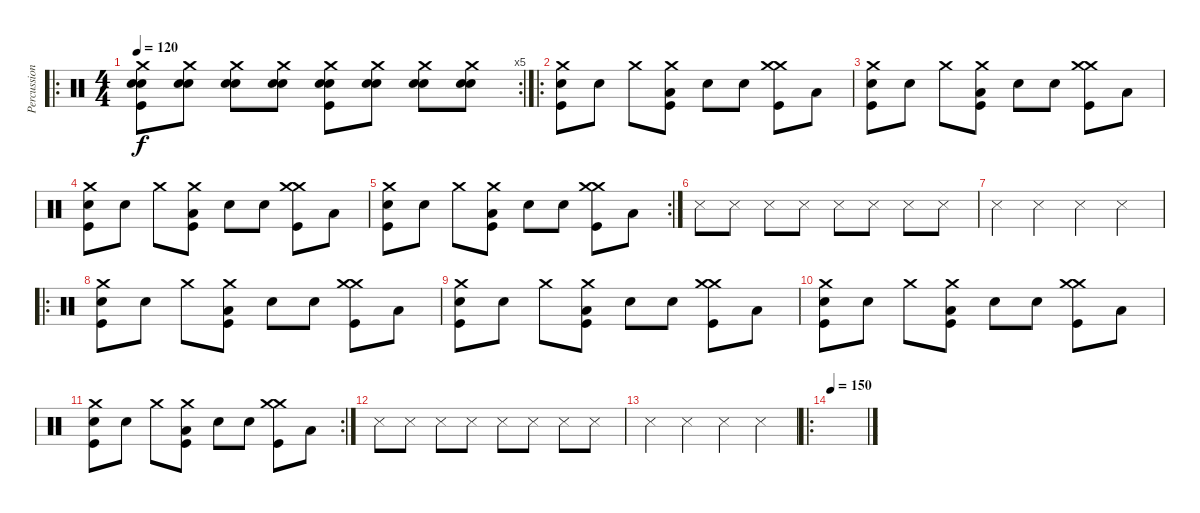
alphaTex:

\track ("Percussion" "Percussion") {instrument percussion}
\staff {score}
\articulation defaults
\ro
\rc 5
\ts (4 4)
\tempo 120
\tempo 170
\tempo 120
\clef neutral
\ks c
("Electric Snare (hit)" "Electric Snare (hit)" "Kick (hit)" "Crash medium (hit)").8{dy f} ("Electric Snare (hit)" "Electric Snare (hit)" "Crash medium (hit)").8 ("Electric Snare (hit)" "Electric Snare (hit)" "Crash medium (hit)").8 ("Electric Snare (hit)" "Electric Snare (hit)" "Crash medium (hit)").8 ("Electric Snare (hit)" "Electric Snare (hit)" "Kick (hit)" "Crash medium (hit)").8 ("Electric Snare (hit)" "Electric Snare (hit)" "Crash medium (hit)").8 ("Electric Snare (hit)" "Electric Snare (hit)" "Crash medium (hit)").8 ("Electric Snare (hit)" "Electric Snare (hit)" "Crash medium (hit)").8 |
\ro
("Electric Snare (hit)" "Kick (hit)" "Crash medium (hit)").8 "Electric Snare (hit)".8 "Crash medium (hit)".8 ("Low Floor Tom (hit)" "Kick (hit)" "Crash medium (hit)").8 "Electric Snare (hit)".8 "Electric Snare (hit)".8 ("Crash medium (hit)" "Kick (hit)" "Crash medium (hit)").8 "Low Floor Tom (hit)".8 |
("Electric Snare (hit)" "Kick (hit)" "Crash medium (hit)").8 "Electric Snare (hit)".8 "Crash medium (hit)".8 ("Low Floor Tom (hit)" "Kick (hit)" "Crash medium (hit)").8 "Electric Snare (hit)".8 "Electric Snare (hit)".8 ("Crash medium (hit)" "Kick (hit)" "Crash medium (hit)").8 "Low Floor Tom (hit)".8 |
("Electric Snare (hit)" "Kick (hit)" "Crash medium (hit)").8 "Electric Snare (hit)".8 "Crash medium (hit)".8 ("Low Floor Tom (hit)" "Kick (hit)" "Crash medium (hit)").8 "Electric Snare (hit)".8 "Electric Snare (hit)".8 ("Crash medium (hit)" "Kick (hit)" "Crash medium (hit)").8 "Low Floor Tom (hit)".8 |
\rc 2
("Electric Snare (hit)" "Kick (hit)" "Crash medium (hit)").8 "Electric Snare (hit)".8 "Crash medium (hit)".8 ("Low Floor Tom (hit)" "Kick (hit)" "Crash medium (hit)").8 "Electric Snare (hit)".8 "Electric Snare (hit)".8 ("Crash medium (hit)" "Kick (hit)" "Crash medium (hit)").8 "Low Floor Tom (hit)".8 |
"Snare (side stick) 3".8 "Snare (side stick) 3".8 "Snare (side stick) 3".8 "Snare (side stick) 3".8 "Snare (side stick) 3".8 "Snare (side stick) 3".8 "Snare (side stick) 3".8 "Snare (side stick) 3".8 |
"Snare (side stick) 3".4 "Snare (side stick) 3".4 "Snare (side stick) 3".4 "Snare (side stick) 3".4 |
\ro
("Electric Snare (hit)" "Kick (hit)" "Crash medium (hit)").8 "Electric Snare (hit)".8 "Crash medium (hit)".8 ("Low Floor Tom (hit)" "Kick (hit)" "Crash medium (hit)").8 "Electric Snare (hit)".8 "Electric Snare (hit)".8 ("Crash medium (hit)" "Kick (hit)" "Crash medium (hit)").8 "Low Floor Tom (hit)".8 |
("Electric Snare (hit)" "Kick (hit)" "Crash medium (hit)").8 "Electric Snare (hit)".8 "Crash medium (hit)".8 ("Low Floor Tom (hit)" "Kick (hit)" "Crash medium (hit)").8 "Electric Snare (hit)".8 "Electric Snare (hit)".8 ("Crash medium (hit)" "Kick (hit)" "Crash medium (hit)").8 "Low Floor Tom (hit)".8 |
("Electric Snare (hit)" "Kick (hit)" "Crash medium (hit)").8 "Electric Snare (hit)".8 "Crash medium (hit)".8 ("Low Floor Tom (hit)" "Kick (hit)" "Crash medium (hit)").8 "Electric Snare (hit)".8 "Electric Snare (hit)".8 ("Crash medium (hit)" "Kick (hit)" "Crash medium (hit)").8 "Low Floor Tom (hit)".8 |
\rc 2
("Electric Snare (hit)" "Kick (hit)" "Crash medium (hit)").8 "Electric Snare (hit)".8 "Crash medium (hit)".8 ("Low Floor Tom (hit)" "Kick (hit)" "Crash medium (hit)").8 "Electric Snare (hit)".8 "Electric Snare (hit)".8 ("Crash medium (hit)" "Kick (hit)" "Crash medium (hit)").8 "Low Floor Tom (hit)".8 |
"Snare (side stick) 3".8 "Snare (side stick) 3".8 "Snare (side stick) 3".8 "Snare (side stick) 3".8 "Snare (side stick) 3".8 "Snare (side stick) 3".8 "Snare (side stick) 3".8 "Snare (side stick) 3".8 |
"Snare (side stick) 3".4 "Snare (side stick) 3".4 "Snare (side stick) 3".4 "Snare (side stick) 3".4 |
\ro
\tempo 150
